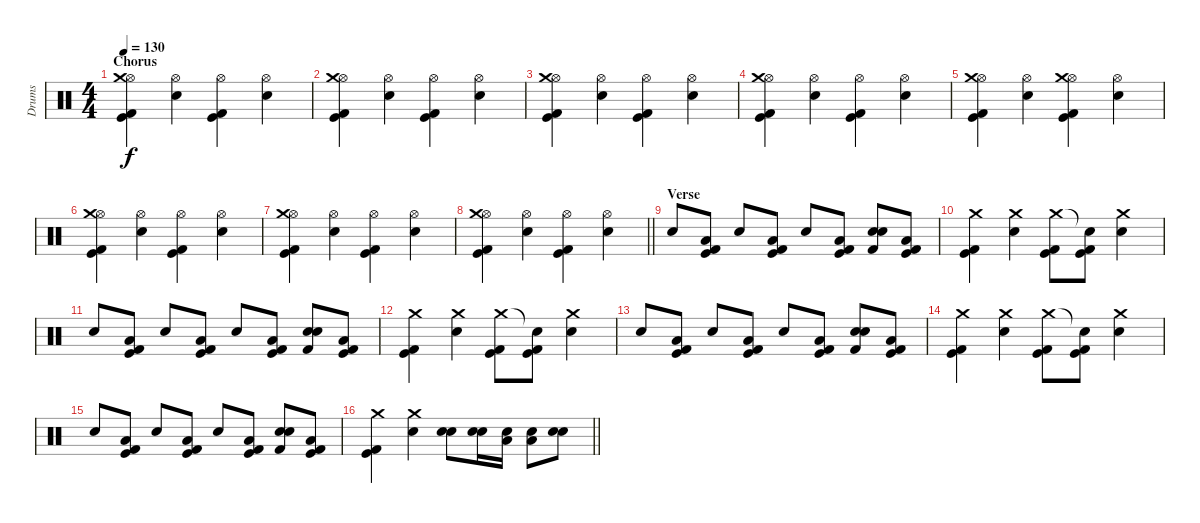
\track ("Drums" "Drums") {instrument percussion}
\staff {score}
\articulation defaults
\ts (4 4)
\section ("" "Chorus")
\tempo 130
\clef neutral
\ks c
("Hi-Hat (open)" "Crash medium (hit)" "Kick (hit)" "Kick (hit) 2").4{dy f} ("Hi-Hat (open)" "Electric Snare (hit)").4 ("Hi-Hat (open)" "Kick (hit)" "Kick (hit) 2").4 ("Hi-Hat (open)" "Electric Snare (hit)").4 |
("Hi-Hat (open)" "Crash medium (hit)" "Kick (hit)" "Kick (hit) 2").4 ("Hi-Hat (open)" "Electric Snare (hit)").4 ("Hi-Hat (open)" "Kick (hit)" "Kick (hit) 2").4 ("Hi-Hat (open)" "Electric Snare (hit)").4 |
("Hi-Hat (open)" "Crash medium (hit)" "Kick (hit)" "Kick (hit) 2").4 ("Hi-Hat (open)" "Electric Snare (hit)").4 ("Hi-Hat (open)" "Kick (hit)" "Kick (hit) 2").4 ("Hi-Hat (open)" "Electric Snare (hit)").4 |
("Hi-Hat (open)" "Crash medium (hit)" "Kick (hit)" "Kick (hit) 2").4 ("Hi-Hat (open)" "Electric Snare (hit)").4 ("Hi-Hat (open)" "Kick (hit)" "Kick (hit) 2").4 ("Hi-Hat (open)" "Electric Snare (hit)").4 |
("Hi-Hat (open)" "Crash medium (hit)" "Kick (hit)" "Kick (hit) 2").4 ("Hi-Hat (open)" "Electric Snare (hit)").4 ("Hi-Hat (open)" "Crash medium (hit)" "Kick (hit)" "Kick (hit) 2").4 ("Hi-Hat (open)" "Electric Snare (hit)").4 |
("Hi-Hat (open)" "Crash medium (hit)" "Kick (hit)" "Kick (hit) 2").4 ("Hi-Hat (open)" "Electric Snare (hit)").4 ("Hi-Hat (open)" "Kick (hit)" "Kick (hit) 2").4 ("Hi-Hat (open)" "Electric Snare (hit)").4 |
("Hi-Hat (open)" "Crash medium (hit)" "Kick (hit)" "Kick (hit) 2").4 ("Hi-Hat (open)" "Electric Snare (hit)").4 ("Hi-Hat (open)" "Kick (hit)" "Kick (hit) 2").4 ("Hi-Hat (open)" "Electric Snare (hit)").4 |
\barLineRight lightlight
("Hi-Hat (open)" "Crash medium (hit)" "Kick (hit)" "Kick (hit) 2").4 ("Hi-Hat (open)" "Electric Snare (hit)").4 ("Hi-Hat (open)" "Kick (hit)" "Kick (hit) 2").4 ("Hi-Hat (open)" "Electric Snare (hit)").4 |
\section ("" "Verse")
"Snare (hit) 2".8 ("Low Floor Tom (hit)" "Kick (hit)" "Kick (hit) 2").8 "Snare (hit) 2".8 ("Low Floor Tom (hit)" "Kick (hit)" "Kick (hit) 2").8 "Snare (hit) 2".8 ("Low Floor Tom (hit)" "Kick (hit)" "Kick (hit) 2").8 ("Electric Snare (hit)" "Snare (hit) 2" "Kick (hit) 2").8 ("Low Floor Tom (hit)" "Kick (hit)" "Kick (hit) 2").8 |
("Crash medium (hit)" "Kick (hit)" "Kick (hit) 2").4 ("Crash medium (hit)" "Snare (hit) 2").4 ("Crash medium (hit)" "Kick (hit)" "Kick (hit) 2").8 ("Snare (hit)"{t} "Kick (hit)" "Kick (hit) 2").8 ("Crash medium (hit)" "Snare (hit) 2").4 |
"Snare (hit) 2".8 ("Low Floor Tom (hit)" "Kick (hit)" "Kick (hit) 2").8 "Snare (hit) 2".8 ("Low Floor Tom (hit)" "Kick (hit)" "Kick (hit) 2").8 "Snare (hit) 2".8 ("Low Floor Tom (hit)" "Kick (hit)" "Kick (hit) 2").8 ("Electric Snare (hit)" "Snare (hit) 2" "Kick (hit) 2").8 ("Low Floor Tom (hit)" "Kick (hit)" "Kick (hit) 2").8 |
("Crash medium (hit)" "Kick (hit)" "Kick (hit) 2").4 ("Crash medium (hit)" "Snare (hit) 2").4 ("Crash medium (hit)" "Kick (hit)" "Kick (hit) 2").8 ("Snare (hit)"{t} "Kick (hit)" "Kick (hit) 2").8 ("Crash medium (hit)" "Snare (hit) 2").4 |
"Snare (hit) 2".8 ("Low Floor Tom (hit)" "Kick (hit)" "Kick (hit) 2").8 "Snare (hit) 2".8 ("Low Floor Tom (hit)" "Kick (hit)" "Kick (hit) 2").8 "Snare (hit) 2".8 ("Low Floor Tom (hit)" "Kick (hit)" "Kick (hit) 2").8 ("Electric Snare (hit)" "Snare (hit) 2" "Kick (hit) 2").8 ("Low Floor Tom (hit)" "Kick (hit)" "Kick (hit) 2").8 |
("Crash medium (hit)" "Kick (hit)" "Kick (hit) 2").4 ("Crash medium (hit)" "Snare (hit) 2").4 ("Crash medium (hit)" "Kick (hit)" "Kick (hit) 2").8 ("Snare (hit)"{t} "Kick (hit)" "Kick (hit) 2").8 ("Crash medium (hit)" "Snare (hit) 2").4 |
"Snare (hit) 2".8 ("Low Floor Tom (hit)" "Kick (hit)" "Kick (hit) 2").8 "Snare (hit) 2".8 ("Low Floor Tom (hit)" "Kick (hit)" "Kick (hit) 2").8 "Snare (hit) 2".8 ("Low Floor Tom (hit)" "Kick (hit)" "Kick (hit) 2").8 ("Electric Snare (hit)" "Snare (hit) 2" "Kick (hit) 2").8 ("Low Floor Tom (hit)" "Kick (hit)" "Kick (hit) 2").8 |
\barLineRight lightlight
("Crash medium (hit)" "Kick (hit)" "Kick (hit) 2").4 ("Crash medium (hit)" "Snare (hit) 2").4 ("Electric Snare (hit)" "Snare (hit) 2").8 ("Electric Snare (hit)" "Snare (hit) 2").16 ("Low Floor Tom (hit)" "Snare (hit) 2").16 ("Low Floor Tom (hit)" "Snare (hit) 2").8 ("Electric Snare (hit)" "Snare (hit) 2").8
